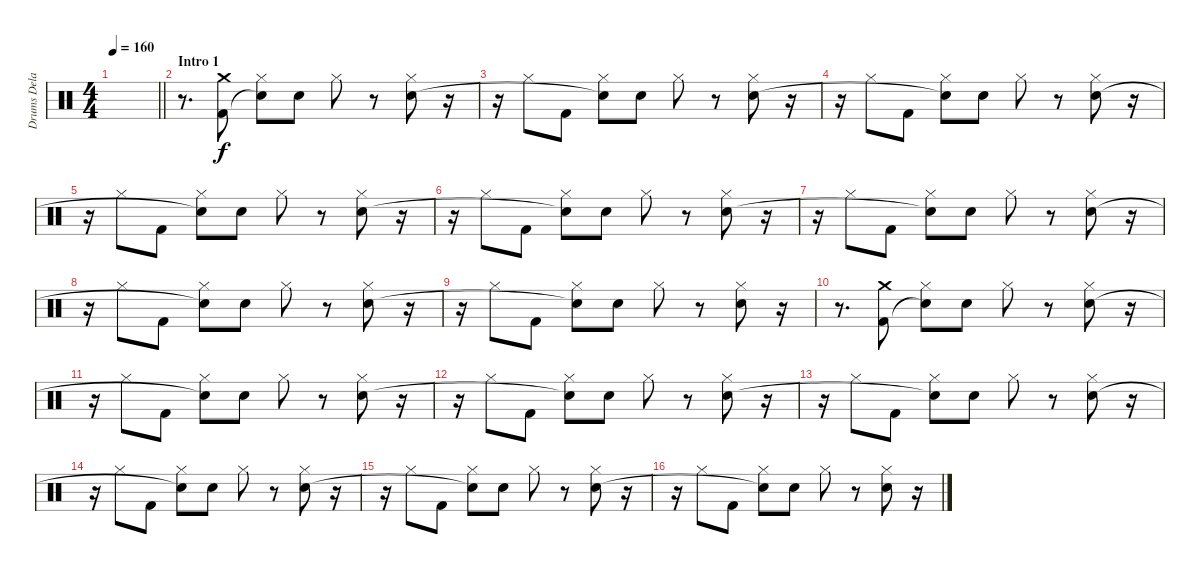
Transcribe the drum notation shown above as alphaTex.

\track ("Drums Delay 2" "Drums Dela") {instrument percussion}
\staff {score}
\articulation defaults
\ts (4 4)
\tempo 160
\clef neutral
\barLineRight lightlight
\ks c
|
\section ("" "Intro 1")
r.8{d} ("Crash medium (hit)" "Kick (hit) 2").8 ("Hi-Hat (closed)" "Snare (hit)"{t}).8 "Electric Snare (hit)".8 "Hi-Hat (closed)".8 r.8 ("Hi-Hat (closed)" "Electric Snare (hit)").8 r.16 |
r.16 "Hi-Hat (closed)".8 "Kick (hit) 2".8 ("Hi-Hat (closed)" "Snare (hit)"{t}).8 "Electric Snare (hit)".8 "Hi-Hat (closed)".8 r.8 ("Hi-Hat (closed)" "Electric Snare (hit)").8 r.16 |
r.16 "Hi-Hat (closed)".8 "Kick (hit) 2".8 ("Hi-Hat (closed)" "Snare (hit)"{t}).8 "Electric Snare (hit)".8 "Hi-Hat (closed)".8 r.8 ("Hi-Hat (closed)" "Electric Snare (hit)").8 r.16 |
r.16 "Hi-Hat (closed)".8 "Kick (hit) 2".8 ("Hi-Hat (closed)" "Snare (hit)"{t}).8 "Electric Snare (hit)".8 "Hi-Hat (closed)".8 r.8 ("Hi-Hat (closed)" "Electric Snare (hit)").8 r.16 |
r.16 "Hi-Hat (closed)".8 "Kick (hit) 2".8 ("Hi-Hat (closed)" "Snare (hit)"{t}).8 "Electric Snare (hit)".8 "Hi-Hat (closed)".8 r.8 ("Hi-Hat (closed)" "Electric Snare (hit)").8 r.16 |
r.16 "Hi-Hat (closed)".8 "Kick (hit) 2".8 ("Hi-Hat (closed)" "Snare (hit)"{t}).8 "Electric Snare (hit)".8 "Hi-Hat (closed)".8 r.8 ("Hi-Hat (closed)" "Electric Snare (hit)").8 r.16 |
r.16 "Hi-Hat (closed)".8 "Kick (hit) 2".8 ("Hi-Hat (closed)" "Snare (hit)"{t}).8 "Electric Snare (hit)".8 "Hi-Hat (closed)".8 r.8 ("Hi-Hat (closed)" "Electric Snare (hit)").8 r.16 |
r.16 "Hi-Hat (closed)".8 "Kick (hit) 2".8 ("Hi-Hat (closed)" "Snare (hit)"{t}).8 "Electric Snare (hit)".8 "Hi-Hat (closed)".8 r.8 ("Hi-Hat (closed)" "Electric Snare (hit)").8 r.16 |
r.8{d} ("Crash medium (hit)" "Kick (hit) 2").8 ("Hi-Hat (closed)" "Snare (hit)"{t}).8 "Electric Snare (hit)".8 "Hi-Hat (closed)".8 r.8 ("Hi-Hat (closed)" "Electric Snare (hit)").8 r.16 |
r.16 "Hi-Hat (closed)".8 "Kick (hit) 2".8 ("Hi-Hat (closed)" "Snare (hit)"{t}).8 "Electric Snare (hit)".8 "Hi-Hat (closed)".8 r.8 ("Hi-Hat (closed)" "Electric Snare (hit)").8 r.16 |
r.16 "Hi-Hat (closed)".8 "Kick (hit) 2".8 ("Hi-Hat (closed)" "Snare (hit)"{t}).8 "Electric Snare (hit)".8 "Hi-Hat (closed)".8 r.8 ("Hi-Hat (closed)" "Electric Snare (hit)").8 r.16 |
r.16 "Hi-Hat (closed)".8 "Kick (hit) 2".8 ("Hi-Hat (closed)" "Snare (hit)"{t}).8 "Electric Snare (hit)".8 "Hi-Hat (closed)".8 r.8 ("Hi-Hat (closed)" "Electric Snare (hit)").8 r.16 |
r.16 "Hi-Hat (closed)".8 "Kick (hit) 2".8 ("Hi-Hat (closed)" "Snare (hit)"{t}).8 "Electric Snare (hit)".8 "Hi-Hat (closed)".8 r.8 ("Hi-Hat (closed)" "Electric Snare (hit)").8 r.16 |
r.16 "Hi-Hat (closed)".8 "Kick (hit) 2".8 ("Hi-Hat (closed)" "Snare (hit)"{t}).8 "Electric Snare (hit)".8 "Hi-Hat (closed)".8 r.8 ("Hi-Hat (closed)" "Electric Snare (hit)").8 r.16 |
r.16 "Hi-Hat (closed)".8 "Kick (hit) 2".8 ("Hi-Hat (closed)" "Snare (hit)"{t}).8 "Electric Snare (hit)".8 "Hi-Hat (closed)".8 r.8 ("Hi-Hat (closed)" "Electric Snare (hit)").8 r.16
